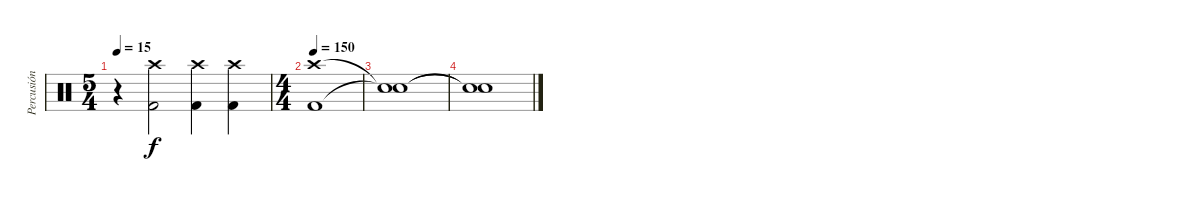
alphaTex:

\track ("Percusión" "Percusión") {instrument percussion}
\staff {score}
\articulation defaults
\ts (5 4)
\tempo 15
\clef neutral
\ks c
r.4{dy f} ("Crash high (hit)" "Kick (hit) 2").2 ("Crash high (hit)" "Kick (hit) 2").4 ("Crash high (hit)" "Kick (hit) 2").4 |
\ts (4 4)
\tempo 150
("Crash high (hit)" "Kick (hit) 2").1 |
("Snare (hit)"{t} "Snare (hit)"{t}).1 |
("Snare (hit)"{t} "Snare (hit)"{t}).1
